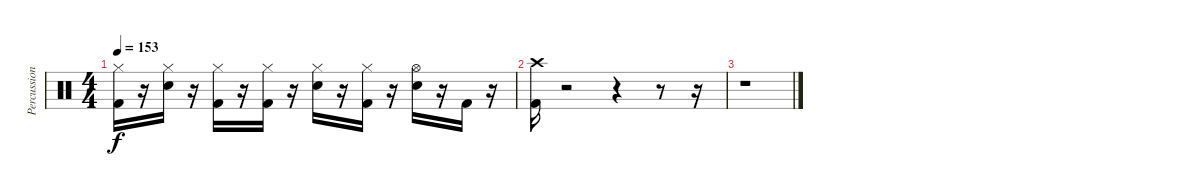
\track ("Percussion" "Percussion") {instrument percussion}
\staff {score}
\articulation defaults
\ts (4 4)
\tempo 153
\clef neutral
\ks c
("Kick (hit) 2" "Hi-Hat (closed)").16{dy f} r.16 ("Electric Snare (hit)" "Hi-Hat (closed)").16 r.16 ("Kick (hit) 2" "Hi-Hat (closed)").16 r.16 ("Kick (hit) 2" "Hi-Hat (closed)").16 r.16 ("Electric Snare (hit)" "Hi-Hat (closed)").16 r.16 ("Kick (hit) 2" "Hi-Hat (closed)").16 r.16 ("Electric Snare (hit)" "Hi-Hat (open)").16 r.16 "Kick (hit) 2".16 r.16 |
("Kick (hit) 2" "Crash high (hit)").16 r.2 r.4 r.8 r.16 |
r.1
